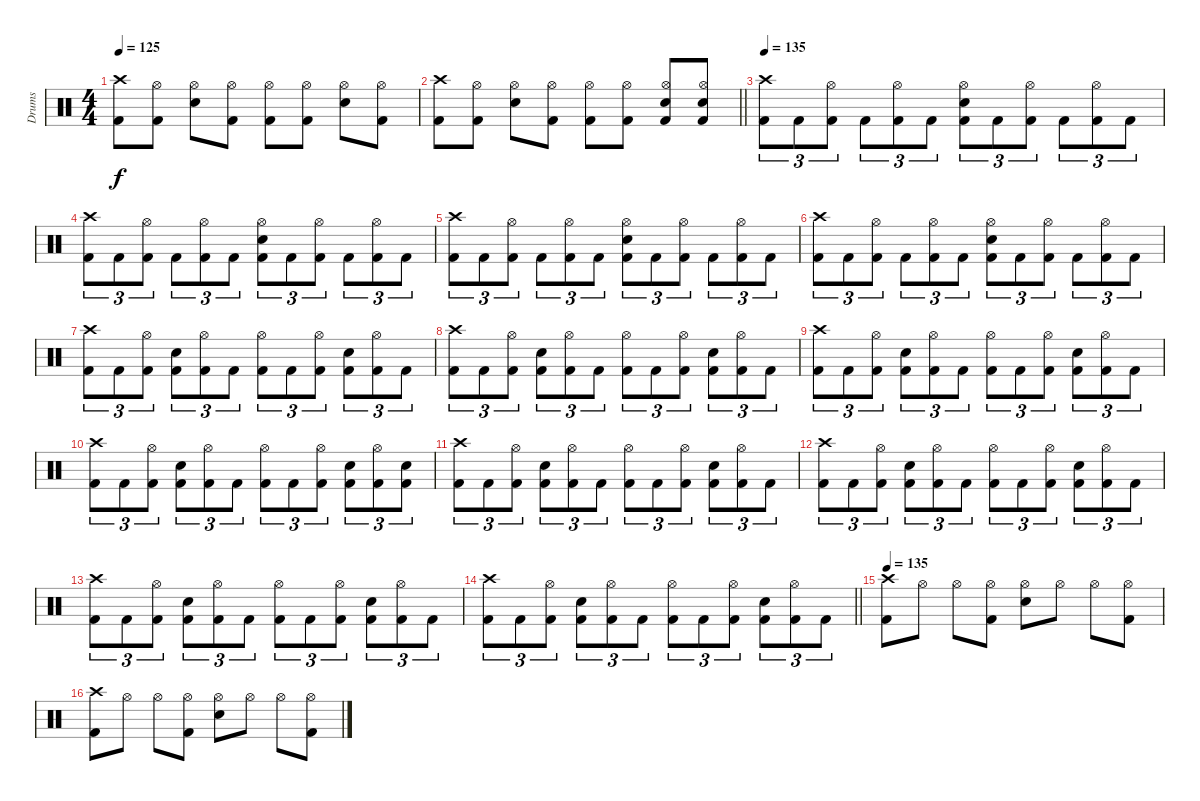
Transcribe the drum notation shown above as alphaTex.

\track ("Drums" "Drums") {instrument percussion}
\staff {score}
\articulation defaults
\ts (4 4)
\tempo 125
\clef neutral
\ks c
("Kick (hit) 2" "Crash high (hit)").8{dy f} ("Kick (hit) 2" "Hi-Hat (open)").8 ("Electric Snare (hit)" "Hi-Hat (open)").8 ("Kick (hit) 2" "Hi-Hat (open)").8 ("Kick (hit) 2" "Hi-Hat (open)").8 ("Kick (hit) 2" "Hi-Hat (open)").8 ("Electric Snare (hit)" "Hi-Hat (open)").8 ("Kick (hit) 2" "Hi-Hat (open)").8 |
\barLineRight lightlight
("Kick (hit) 2" "Crash high (hit)").8 ("Kick (hit) 2" "Hi-Hat (open)").8 ("Electric Snare (hit)" "Hi-Hat (open)").8 ("Kick (hit) 2" "Hi-Hat (open)").8 ("Kick (hit) 2" "Hi-Hat (open)").8 ("Kick (hit) 2" "Hi-Hat (open)").8 ("Kick (hit) 2" "Electric Snare (hit)" "Hi-Hat (open)").8 ("Kick (hit) 2" "Electric Snare (hit)" "Hi-Hat (open)").8 |
\tempo 135
("Kick (hit) 2" "Crash high (hit)").8{tu (3 2)} "Kick (hit) 2".8{tu (3 2)} ("Kick (hit) 2" "Hi-Hat (open)").8{tu (3 2)} "Kick (hit) 2".8{tu (3 2)} ("Kick (hit) 2" "Hi-Hat (open)").8{tu (3 2)} "Kick (hit) 2".8{tu (3 2)} ("Kick (hit) 2" "Electric Snare (hit)" "Hi-Hat (open)").8{tu (3 2)} "Kick (hit) 2".8{tu (3 2)} ("Kick (hit) 2" "Hi-Hat (open)").8{tu (3 2)} "Kick (hit) 2".8{tu (3 2)} ("Kick (hit) 2" "Hi-Hat (open)").8{tu (3 2)} "Kick (hit) 2".8{tu (3 2)} |
("Kick (hit) 2" "Crash high (hit)").8{tu (3 2)} "Kick (hit) 2".8{tu (3 2)} ("Kick (hit) 2" "Hi-Hat (open)").8{tu (3 2)} "Kick (hit) 2".8{tu (3 2)} ("Kick (hit) 2" "Hi-Hat (open)").8{tu (3 2)} "Kick (hit) 2".8{tu (3 2)} ("Kick (hit) 2" "Electric Snare (hit)" "Hi-Hat (open)").8{tu (3 2)} "Kick (hit) 2".8{tu (3 2)} ("Kick (hit) 2" "Hi-Hat (open)").8{tu (3 2)} "Kick (hit) 2".8{tu (3 2)} ("Kick (hit) 2" "Hi-Hat (open)").8{tu (3 2)} "Kick (hit) 2".8{tu (3 2)} |
("Kick (hit) 2" "Crash high (hit)").8{tu (3 2)} "Kick (hit) 2".8{tu (3 2)} ("Kick (hit) 2" "Hi-Hat (open)").8{tu (3 2)} "Kick (hit) 2".8{tu (3 2)} ("Kick (hit) 2" "Hi-Hat (open)").8{tu (3 2)} "Kick (hit) 2".8{tu (3 2)} ("Kick (hit) 2" "Electric Snare (hit)" "Hi-Hat (open)").8{tu (3 2)} "Kick (hit) 2".8{tu (3 2)} ("Kick (hit) 2" "Hi-Hat (open)").8{tu (3 2)} "Kick (hit) 2".8{tu (3 2)} ("Kick (hit) 2" "Hi-Hat (open)").8{tu (3 2)} "Kick (hit) 2".8{tu (3 2)} |
("Kick (hit) 2" "Crash high (hit)").8{tu (3 2)} "Kick (hit) 2".8{tu (3 2)} ("Kick (hit) 2" "Hi-Hat (open)").8{tu (3 2)} "Kick (hit) 2".8{tu (3 2)} ("Kick (hit) 2" "Hi-Hat (open)").8{tu (3 2)} "Kick (hit) 2".8{tu (3 2)} ("Kick (hit) 2" "Electric Snare (hit)" "Hi-Hat (open)").8{tu (3 2)} "Kick (hit) 2".8{tu (3 2)} ("Kick (hit) 2" "Hi-Hat (open)").8{tu (3 2)} "Kick (hit) 2".8{tu (3 2)} ("Kick (hit) 2" "Hi-Hat (open)").8{tu (3 2)} "Kick (hit) 2".8{tu (3 2)} |
("Kick (hit) 2" "Crash high (hit)").8{tu (3 2)} "Kick (hit) 2".8{tu (3 2)} ("Kick (hit) 2" "Hi-Hat (open)").8{tu (3 2)} ("Kick (hit) 2" "Electric Snare (hit)").8{tu (3 2)} ("Kick (hit) 2" "Hi-Hat (open)").8{tu (3 2)} "Kick (hit) 2".8{tu (3 2)} ("Kick (hit) 2" "Hi-Hat (open)").8{tu (3 2)} "Kick (hit) 2".8{tu (3 2)} ("Kick (hit) 2" "Hi-Hat (open)").8{tu (3 2)} ("Kick (hit) 2" "Electric Snare (hit)").8{tu (3 2)} ("Kick (hit) 2" "Hi-Hat (open)").8{tu (3 2)} "Kick (hit) 2".8{tu (3 2)} |
("Kick (hit) 2" "Crash high (hit)").8{tu (3 2)} "Kick (hit) 2".8{tu (3 2)} ("Kick (hit) 2" "Hi-Hat (open)").8{tu (3 2)} ("Kick (hit) 2" "Electric Snare (hit)").8{tu (3 2)} ("Kick (hit) 2" "Hi-Hat (open)").8{tu (3 2)} "Kick (hit) 2".8{tu (3 2)} ("Kick (hit) 2" "Hi-Hat (open)").8{tu (3 2)} "Kick (hit) 2".8{tu (3 2)} ("Kick (hit) 2" "Hi-Hat (open)").8{tu (3 2)} ("Kick (hit) 2" "Electric Snare (hit)").8{tu (3 2)} ("Kick (hit) 2" "Hi-Hat (open)").8{tu (3 2)} "Kick (hit) 2".8{tu (3 2)} |
("Kick (hit) 2" "Crash high (hit)").8{tu (3 2)} "Kick (hit) 2".8{tu (3 2)} ("Kick (hit) 2" "Hi-Hat (open)").8{tu (3 2)} ("Kick (hit) 2" "Electric Snare (hit)").8{tu (3 2)} ("Kick (hit) 2" "Hi-Hat (open)").8{tu (3 2)} "Kick (hit) 2".8{tu (3 2)} ("Kick (hit) 2" "Hi-Hat (open)").8{tu (3 2)} "Kick (hit) 2".8{tu (3 2)} ("Kick (hit) 2" "Hi-Hat (open)").8{tu (3 2)} ("Kick (hit) 2" "Electric Snare (hit)").8{tu (3 2)} ("Kick (hit) 2" "Hi-Hat (open)").8{tu (3 2)} "Kick (hit) 2".8{tu (3 2)} |
("Kick (hit) 2" "Crash high (hit)").8{tu (3 2)} "Kick (hit) 2".8{tu (3 2)} ("Kick (hit) 2" "Hi-Hat (open)").8{tu (3 2)} ("Kick (hit) 2" "Electric Snare (hit)").8{tu (3 2)} ("Kick (hit) 2" "Hi-Hat (open)").8{tu (3 2)} "Kick (hit) 2".8{tu (3 2)} ("Kick (hit) 2" "Hi-Hat (open)").8{tu (3 2)} "Kick (hit) 2".8{tu (3 2)} ("Kick (hit) 2" "Hi-Hat (open)").8{tu (3 2)} ("Kick (hit) 2" "Electric Snare (hit)").8{tu (3 2)} ("Kick (hit) 2" "Hi-Hat (open)").8{tu (3 2)} ("Kick (hit) 2" "Electric Snare (hit)").8{tu (3 2)} |
("Kick (hit) 2" "Crash high (hit)").8{tu (3 2)} "Kick (hit) 2".8{tu (3 2)} ("Kick (hit) 2" "Hi-Hat (open)").8{tu (3 2)} ("Kick (hit) 2" "Electric Snare (hit)").8{tu (3 2)} ("Kick (hit) 2" "Hi-Hat (open)").8{tu (3 2)} "Kick (hit) 2".8{tu (3 2)} ("Kick (hit) 2" "Hi-Hat (open)").8{tu (3 2)} "Kick (hit) 2".8{tu (3 2)} ("Kick (hit) 2" "Hi-Hat (open)").8{tu (3 2)} ("Kick (hit) 2" "Electric Snare (hit)").8{tu (3 2)} ("Kick (hit) 2" "Hi-Hat (open)").8{tu (3 2)} "Kick (hit) 2".8{tu (3 2)} |
("Kick (hit) 2" "Crash high (hit)").8{tu (3 2)} "Kick (hit) 2".8{tu (3 2)} ("Kick (hit) 2" "Hi-Hat (open)").8{tu (3 2)} ("Kick (hit) 2" "Electric Snare (hit)").8{tu (3 2)} ("Kick (hit) 2" "Hi-Hat (open)").8{tu (3 2)} "Kick (hit) 2".8{tu (3 2)} ("Kick (hit) 2" "Hi-Hat (open)").8{tu (3 2)} "Kick (hit) 2".8{tu (3 2)} ("Kick (hit) 2" "Hi-Hat (open)").8{tu (3 2)} ("Kick (hit) 2" "Electric Snare (hit)").8{tu (3 2)} ("Kick (hit) 2" "Hi-Hat (open)").8{tu (3 2)} "Kick (hit) 2".8{tu (3 2)} |
("Kick (hit) 2" "Crash high (hit)").8{tu (3 2)} "Kick (hit) 2".8{tu (3 2)} ("Kick (hit) 2" "Hi-Hat (open)").8{tu (3 2)} ("Kick (hit) 2" "Electric Snare (hit)").8{tu (3 2)} ("Kick (hit) 2" "Hi-Hat (open)").8{tu (3 2)} "Kick (hit) 2".8{tu (3 2)} ("Kick (hit) 2" "Hi-Hat (open)").8{tu (3 2)} "Kick (hit) 2".8{tu (3 2)} ("Kick (hit) 2" "Hi-Hat (open)").8{tu (3 2)} ("Kick (hit) 2" "Electric Snare (hit)").8{tu (3 2)} ("Kick (hit) 2" "Hi-Hat (open)").8{tu (3 2)} "Kick (hit) 2".8{tu (3 2)} |
\barLineRight lightlight
("Kick (hit) 2" "Crash high (hit)").8{tu (3 2)} "Kick (hit) 2".8{tu (3 2)} ("Kick (hit) 2" "Hi-Hat (open)").8{tu (3 2)} ("Kick (hit) 2" "Electric Snare (hit)").8{tu (3 2)} ("Kick (hit) 2" "Hi-Hat (open)").8{tu (3 2)} "Kick (hit) 2".8{tu (3 2)} ("Kick (hit) 2" "Hi-Hat (open)").8{tu (3 2)} "Kick (hit) 2".8{tu (3 2)} ("Kick (hit) 2" "Hi-Hat (open)").8{tu (3 2)} ("Kick (hit) 2" "Electric Snare (hit)").8{tu (3 2)} ("Kick (hit) 2" "Hi-Hat (open)").8{tu (3 2)} "Kick (hit) 2".8{tu (3 2)} |
\tempo 135
("Kick (hit) 2" "Crash high (hit)").8 "Hi-Hat (open)".8 "Hi-Hat (open)".8 ("Kick (hit) 2" "Hi-Hat (open)").8 ("Electric Snare (hit)" "Hi-Hat (open)").8 "Hi-Hat (open)".8 "Hi-Hat (open)".8 ("Kick (hit) 2" "Hi-Hat (open)").8 |
("Kick (hit) 2" "Crash high (hit)").8 "Hi-Hat (open)".8 "Hi-Hat (open)".8 ("Kick (hit) 2" "Hi-Hat (open)").8 ("Electric Snare (hit)" "Hi-Hat (open)").8 "Hi-Hat (open)".8 "Hi-Hat (open)".8 ("Kick (hit) 2" "Hi-Hat (open)").8
